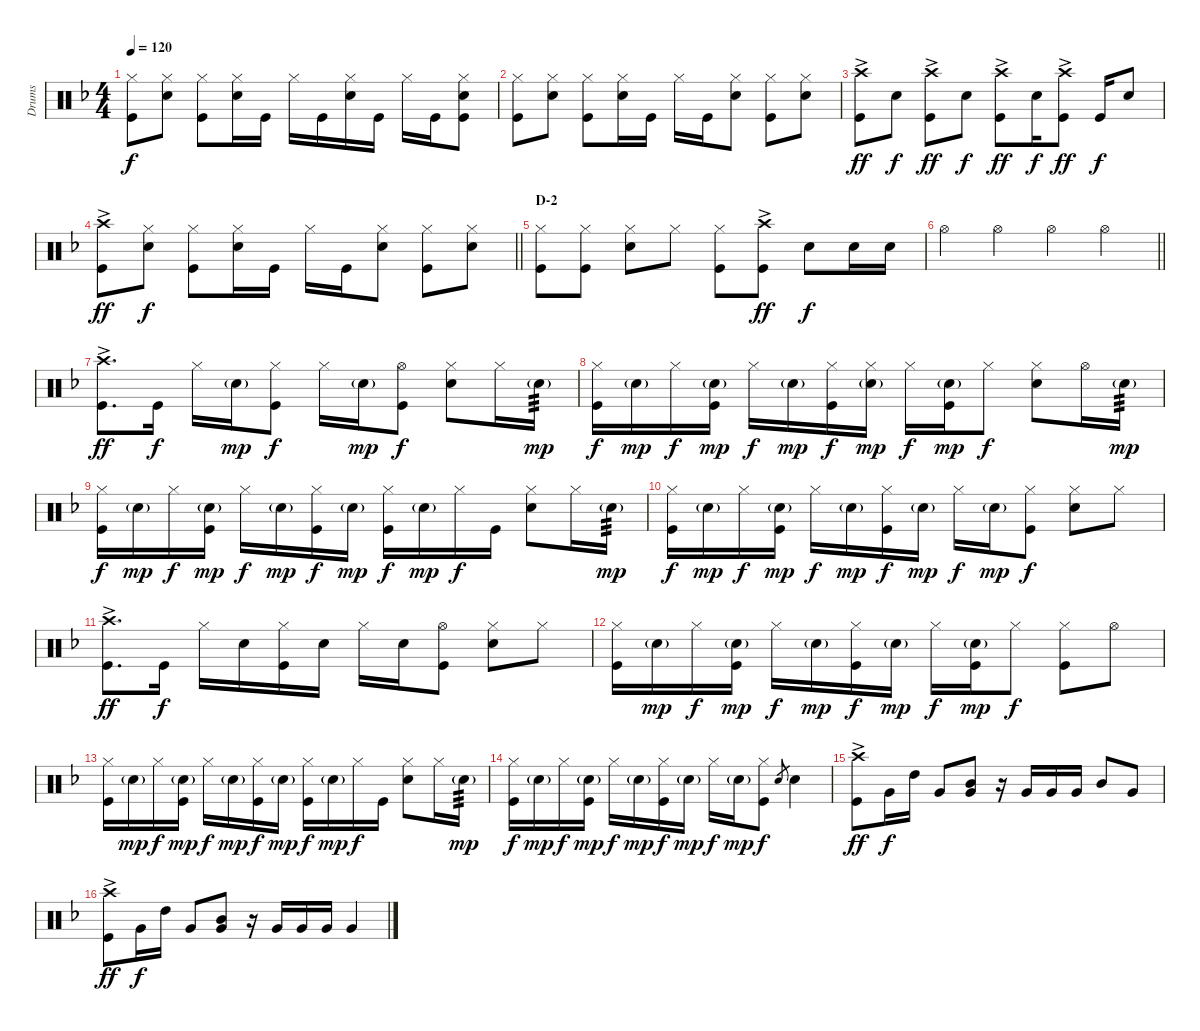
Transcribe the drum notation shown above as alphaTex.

\track ("Drums" "Drums") {instrument percussion}
\staff {score}
\articulation defaults
\ts (4 4)
\tempo 120
\clef neutral
\ks f
("Hi-Hat (closed)" "Kick (hit)").8{dy f} ("Hi-Hat (closed)" "Snare (hit) 2").8 ("Hi-Hat (closed)" "Kick (hit)").8 ("Hi-Hat (closed)" "Snare (hit) 2").16 "Kick (hit)".16 "Hi-Hat (closed)".16 "Kick (hit)".16 ("Hi-Hat (closed)" "Snare (hit) 2").16 "Kick (hit)".16 "Hi-Hat (closed)".16 "Kick (hit)".16 ("Hi-Hat (closed)" "Snare (hit) 2" "Kick (hit)").8 |
("Hi-Hat (closed)" "Kick (hit)").8 ("Hi-Hat (closed)" "Snare (hit) 2").8 ("Hi-Hat (closed)" "Kick (hit)").8 ("Hi-Hat (closed)" "Snare (hit) 2").16 "Kick (hit)".16 "Hi-Hat (closed)".16 "Kick (hit)".16 ("Hi-Hat (closed)" "Snare (hit) 2").8 ("Hi-Hat (closed)" "Kick (hit)").8 ("Snare (hit) 2" "Hi-Hat (closed)").8 |
("Crash high (hit)"{ac} "Kick (hit)").8{dy ff} "Snare (hit) 2".8{dy f} ("Crash high (hit)"{ac} "Kick (hit)").8{dy ff} "Snare (hit) 2".8{dy f} ("Crash high (hit)"{ac} "Kick (hit)").8{dy ff} "Snare (hit) 2".16{dy f} ("Kick (hit)" "Crash high (hit)"{ac}).8{dy ff} "Kick (hit)".16{dy f} "Snare (hit) 2".8 |
\barLineRight lightlight
("Crash high (hit)"{ac} "Kick (hit)").8{dy ff} ("Hi-Hat (closed)" "Snare (hit) 2").8{dy f} ("Hi-Hat (closed)" "Kick (hit)").8 ("Hi-Hat (closed)" "Snare (hit) 2").16 "Kick (hit)".16 "Hi-Hat (closed)".16 "Kick (hit)".16 ("Hi-Hat (closed)" "Snare (hit) 2").8 ("Hi-Hat (closed)" "Kick (hit)").8 ("Hi-Hat (closed)" "Snare (hit) 2").8 |
\section ("" "D-2")
("Hi-Hat (closed)" "Kick (hit)").8 ("Hi-Hat (closed)" "Kick (hit)").8 ("Hi-Hat (closed)" "Snare (hit) 2").8 "Hi-Hat (closed)".8 ("Hi-Hat (closed)" "Kick (hit)").8 ("Crash high (hit)"{ac} "Kick (hit)").8{dy ff} "Snare (hit) 2".8{dy f} "Snare (hit) 2".16 "Snare (hit) 2".16 |
\barLineRight lightlight "Hi-Hat (open)".4 "Hi-Hat (open)".4 "Hi-Hat (open)".4 "Hi-Hat (open)".4
|
("Crash high (hit)"{ac} "Kick (hit)").8{d dy ff} "Kick (hit)".16{dy f} "Hi-Hat (closed)".16 "Snare (hit) 2"{g}.16{dy mp} ("Hi-Hat (closed)" "Kick (hit)").8{dy f} "Hi-Hat (closed)".16 "Snare (hit) 2"{g}.16{dy mp} ("Hi-Hat (open)" "Kick (hit)").8{dy f} ("Hi-Hat (closed)" "Snare (hit) 2").8 "Hi-Hat (closed)".16 "Snare (hit) 2"{g}.16{tp 3 dy mp} |
("Hi-Hat (closed)" "Kick (hit)").16{dy f} "Snare (hit) 2"{g}.16{dy mp} "Hi-Hat (closed)".16{dy f} ("Snare (hit) 2"{g} "Kick (hit)").16{dy mp} "Hi-Hat (closed)".16{dy f} "Snare (hit) 2"{g}.16{dy mp} ("Hi-Hat (closed)" "Kick (hit)").16{dy f} ("Hi-Hat (closed)" "Snare (hit) 2"{g}).16{dy mp} "Hi-Hat (closed)".16{dy f} ("Snare (hit) 2"{g} "Kick (hit)").16{dy mp} "Hi-Hat (closed)".8{dy f} ("Hi-Hat (closed)" "Snare (hit) 2").8 "Hi-Hat (open)".16 "Snare (hit) 2"{g}.16{tp 3 dy mp} |
("Hi-Hat (closed)" "Kick (hit)").16{dy f} "Snare (hit) 2"{g}.16{dy mp} "Hi-Hat (closed)".16{dy f} ("Kick (hit)" "Snare (hit) 2"{g}).16{dy mp} "Hi-Hat (closed)".16{dy f} "Snare (hit) 2"{g}.16{dy mp} ("Hi-Hat (closed)" "Kick (hit)").16{dy f} "Snare (hit) 2"{g}.16{dy mp} ("Hi-Hat (closed)" "Kick (hit)").16{dy f} "Snare (hit) 2"{g}.16{dy mp} "Hi-Hat (closed)".16{dy f} "Kick (hit)".16 ("Hi-Hat (closed)" "Snare (hit) 2").8 "Hi-Hat (closed)".16 "Snare (hit) 2"{g}.16{tp 3 dy mp} |
("Hi-Hat (closed)" "Kick (hit)").16{dy f} "Snare (hit) 2"{g}.16{dy mp} "Hi-Hat (closed)".16{dy f} ("Snare (hit) 2"{g} "Kick (hit)").16{dy mp} "Hi-Hat (closed)".16{dy f} "Snare (hit) 2"{g}.16{dy mp} ("Hi-Hat (closed)" "Kick (hit)").16{dy f} "Snare (hit) 2"{g}.16{dy mp} "Hi-Hat (closed)".16{dy f} "Snare (hit) 2"{g}.16{dy mp} ("Hi-Hat (closed)" "Kick (hit)").8{dy f} ("Hi-Hat (closed)" "Snare (hit) 2").8 "Hi-Hat (closed)".8 |
("Crash high (hit)"{ac} "Kick (hit)").8{d dy ff} "Kick (hit)".16{dy f} "Hi-Hat (closed)".16 "Snare (hit) 2".16 ("Hi-Hat (closed)" "Kick (hit)").16 "Snare (hit) 2".16 "Hi-Hat (closed)".16 "Snare (hit) 2".16 ("Hi-Hat (open)" "Kick (hit)").8 ("Hi-Hat (closed)" "Snare (hit) 2").8 "Hi-Hat (closed)".8 |
("Hi-Hat (closed)" "Kick (hit)").16 "Snare (hit) 2"{g}.16{dy mp} "Hi-Hat (closed)".16{dy f} ("Snare (hit) 2"{g} "Kick (hit)").16{dy mp} "Hi-Hat (closed)".16{dy f} "Snare (hit) 2"{g}.16{dy mp} ("Hi-Hat (closed)" "Kick (hit)").16{dy f} "Snare (hit) 2"{g}.16{dy mp} "Hi-Hat (closed)".16{dy f} ("Snare (hit) 2"{g} "Kick (hit)").16{dy mp} "Hi-Hat (closed)".8{dy f} ("Hi-Hat (closed)" "Kick (hit)").8 "Hi-Hat (open)".8 |
("Hi-Hat (closed)" "Kick (hit)").16 "Snare (hit) 2"{g}.16{dy mp} "Hi-Hat (closed)".16{dy f} ("Snare (hit) 2"{g} "Kick (hit)").16{dy mp} "Hi-Hat (closed)".16{dy f} "Snare (hit) 2"{g}.16{dy mp} ("Hi-Hat (closed)" "Kick (hit)").16{dy f} "Snare (hit) 2"{g}.16{dy mp} ("Hi-Hat (closed)" "Kick (hit)").16{dy f} "Snare (hit) 2"{g}.16{dy mp} "Hi-Hat (closed)".16{dy f} "Kick (hit)".16 ("Hi-Hat (closed)" "Snare (hit) 2").8 "Hi-Hat (closed)".16 "Snare (hit) 2"{g}.16{tp 3 dy mp} |
("Hi-Hat (closed)" "Kick (hit)").16{dy f} "Snare (hit) 2"{g}.16{dy mp} "Hi-Hat (closed)".16{dy f} ("Snare (hit) 2"{g} "Kick (hit)").16{dy mp} "Hi-Hat (closed)".16{dy f} "Snare (hit) 2"{g}.16{dy mp} ("Hi-Hat (closed)" "Kick (hit)").16{dy f} "Snare (hit) 2"{g}.16{dy mp} "Hi-Hat (closed)".16{dy f} "Snare (hit) 2"{g}.16{dy mp} ("Hi-Hat (closed)" "Kick (hit)").8{dy f} "Snare (hit) 2".8{gr} "Snare (hit) 2".4 |
("Crash high (hit)"{ac} "Kick (hit)").8{dy ff} "Very Low Tom (hit)".16{dy f} "High Tom (hit)".16 "Very Low Tom (hit)".8 ("Very Low Tom (hit)" "Mid Tom (hit)").8 r.16 "Very Low Tom (hit)".16 "Very Low Tom (hit)".16 "Very Low Tom (hit)".16 "Mid Tom (hit)".8 "Very Low Tom (hit)".8 |
("Crash high (hit)"{ac} "Kick (hit)").8{dy ff} "Very Low Tom (hit)".16{dy f} "High Tom (hit)".16 "Very Low Tom (hit)".8 ("Very Low Tom (hit)" "Mid Tom (hit)").8 r.16 "Very Low Tom (hit)".16 "Very Low Tom (hit)".16 "Very Low Tom (hit)".16 "Very Low Tom (hit)".4
